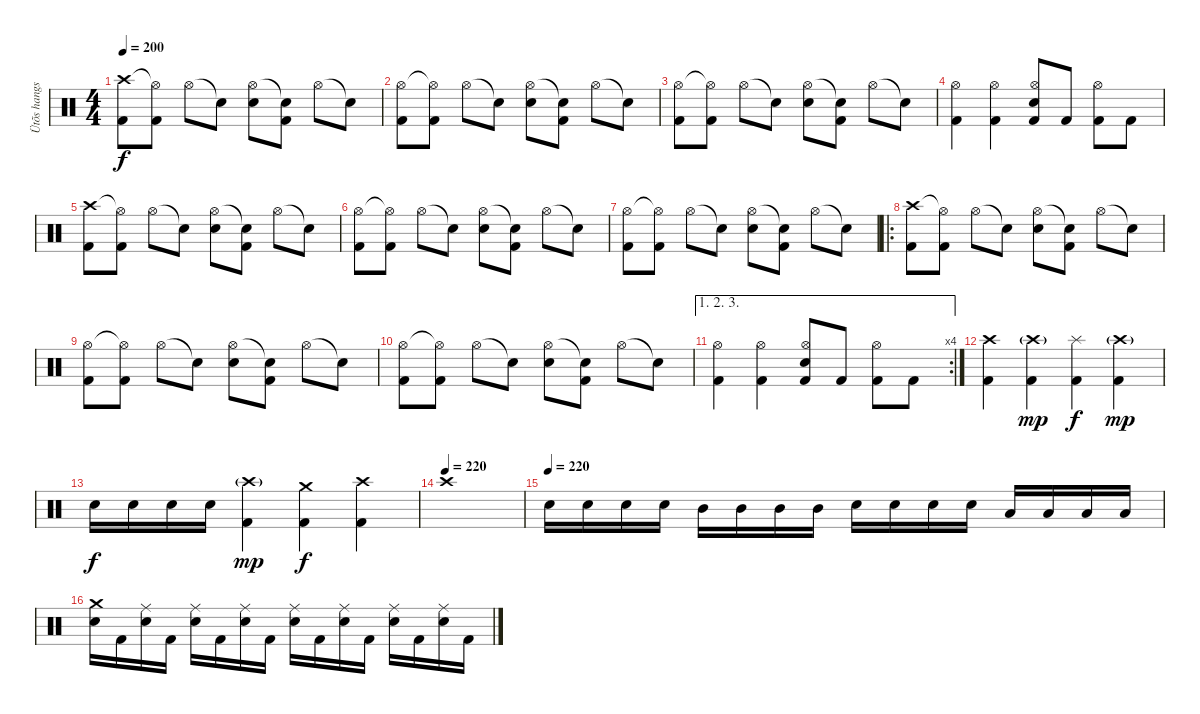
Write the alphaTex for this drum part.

\track ("Ütõs hangszer" "Ütõs hangs") {instrument percussion}
\staff {score}
\articulation defaults
\ts (4 4)
\tempo 200
\clef neutral
\ks c
("Crash high (hit)" "Kick (hit) 2").8{dy f} ("Hi-Hat (open)"{t} "Kick (hit) 2").8 "Hi-Hat (open)".8 "Snare (hit)"{t}.8 ("Hi-Hat (open)" "Snare (hit) 2").8 ("Snare (hit)"{t} "Kick (hit) 2").8 "Hi-Hat (open)".8 "Snare (hit)"{t}.8 |
("Hi-Hat (open)" "Kick (hit) 2").8 ("Hi-Hat (open)"{t} "Kick (hit) 2").8 "Hi-Hat (open)".8 "Snare (hit)"{t}.8 ("Hi-Hat (open)" "Snare (hit) 2").8 ("Snare (hit)"{t} "Kick (hit) 2").8 "Hi-Hat (open)".8 "Snare (hit)"{t}.8 |
("Hi-Hat (open)" "Kick (hit) 2").8 ("Hi-Hat (open)"{t} "Kick (hit) 2").8 "Hi-Hat (open)".8 "Snare (hit)"{t}.8 ("Hi-Hat (open)" "Snare (hit) 2").8 ("Snare (hit)"{t} "Kick (hit) 2").8 "Hi-Hat (open)".8 "Snare (hit)"{t}.8 |
("Hi-Hat (open)" "Kick (hit) 2").4 ("Hi-Hat (open)" "Kick (hit) 2").4 ("Hi-Hat (open)" "Snare (hit) 2" "Kick (hit) 2").8 "Kick (hit) 2".8 ("Hi-Hat (open)" "Kick (hit) 2").8 "Kick (hit) 2".8 |
("Crash high (hit)" "Kick (hit) 2").8 ("Hi-Hat (open)"{t} "Kick (hit) 2").8 "Hi-Hat (open)".8 "Snare (hit)"{t}.8 ("Hi-Hat (open)" "Snare (hit) 2").8 ("Snare (hit)"{t} "Kick (hit) 2").8 "Hi-Hat (open)".8 "Snare (hit)"{t}.8 |
("Hi-Hat (open)" "Kick (hit) 2").8 ("Hi-Hat (open)"{t} "Kick (hit) 2").8 "Hi-Hat (open)".8 "Snare (hit)"{t}.8 ("Hi-Hat (open)" "Snare (hit) 2").8 ("Snare (hit)"{t} "Kick (hit) 2").8 "Hi-Hat (open)".8 "Snare (hit)"{t}.8 |
("Hi-Hat (open)" "Kick (hit) 2").8 ("Hi-Hat (open)"{t} "Kick (hit) 2").8 "Hi-Hat (open)".8 "Snare (hit)"{t}.8 ("Hi-Hat (open)" "Snare (hit) 2").8 ("Snare (hit)"{t} "Kick (hit) 2").8 "Hi-Hat (open)".8 "Snare (hit)"{t}.8 |
\ro
("Crash high (hit)" "Kick (hit) 2").8 ("Hi-Hat (open)"{t} "Kick (hit) 2").8 "Hi-Hat (open)".8 "Snare (hit)"{t}.8 ("Hi-Hat (open)" "Snare (hit) 2").8 ("Snare (hit)"{t} "Kick (hit) 2").8 "Hi-Hat (open)".8 "Snare (hit)"{t}.8 |
("Hi-Hat (open)" "Kick (hit) 2").8 ("Hi-Hat (open)"{t} "Kick (hit) 2").8 "Hi-Hat (open)".8 "Snare (hit)"{t}.8 ("Hi-Hat (open)" "Snare (hit) 2").8 ("Snare (hit)"{t} "Kick (hit) 2").8 "Hi-Hat (open)".8 "Snare (hit)"{t}.8 |
("Hi-Hat (open)" "Kick (hit) 2").8 ("Hi-Hat (open)"{t} "Kick (hit) 2").8 "Hi-Hat (open)".8 "Snare (hit)"{t}.8 ("Hi-Hat (open)" "Snare (hit) 2").8 ("Snare (hit)"{t} "Kick (hit) 2").8 "Hi-Hat (open)".8 "Snare (hit)"{t}.8 |
\ae (1 2 3)
\rc 4
("Hi-Hat (open)" "Kick (hit) 2").4 ("Hi-Hat (open)" "Kick (hit) 2").4 ("Hi-Hat (open)" "Snare (hit) 2" "Kick (hit) 2").8 "Kick (hit) 2".8 ("Hi-Hat (open)" "Kick (hit) 2").8 "Kick (hit) 2".8 |
("Crash high (hit)" "Kick (hit) 2").4 ("Crash high (hit)"{g} "Kick (hit) 2").4{dy mp} ("Splash (hit)" "Kick (hit) 2").4{dy f} ("Crash high (hit)"{g} "Kick (hit) 2").4{dy mp} |
"Snare (hit) 2".16{dy f} "Snare (hit) 2".16 "Snare (hit) 2".16 "Snare (hit) 2".16 ("Crash high (hit)"{g} "Kick (hit) 2").4{dy mp} ("Crash medium (hit)" "Kick (hit) 2").4{dy f} ("Crash high (hit)" "Kick (hit) 2").4 |
\tempo (220)
"Crash high (hit)".1 |
\tempo (220)
"Snare (hit) 2".16 "Snare (hit) 2".16 "Snare (hit) 2".16 "Snare (hit) 2".16 "Mid Tom (hit)".16 "Mid Tom (hit)".16 "Mid Tom (hit)".16 "Mid Tom (hit)".16 "Snare (hit) 2".16 "Snare (hit) 2".16 "Snare (hit) 2".16 "Snare (hit) 2".16 "Low Tom (hit)".16 "Low Tom (hit)".16 "Low Tom (hit)".16 "Low Tom (hit)".16 |
("Crash medium (hit)" "Snare (hit) 2").16 "Kick (hit) 2".16 ("Ride (middle)" "Snare (hit) 2").16 "Kick (hit) 2".16 ("Ride (middle)" "Snare (hit) 2").16 "Kick (hit) 2".16 ("Ride (middle)" "Snare (hit) 2").16 "Kick (hit) 2".16 ("Ride (middle)" "Snare (hit) 2").16 "Kick (hit) 2".16 ("Ride (middle)" "Snare (hit) 2").16 "Kick (hit) 2".16 ("Ride (middle)" "Snare (hit) 2").16 "Kick (hit) 2".16 ("Ride (middle)" "Snare (hit) 2").16 "Kick (hit) 2".16
